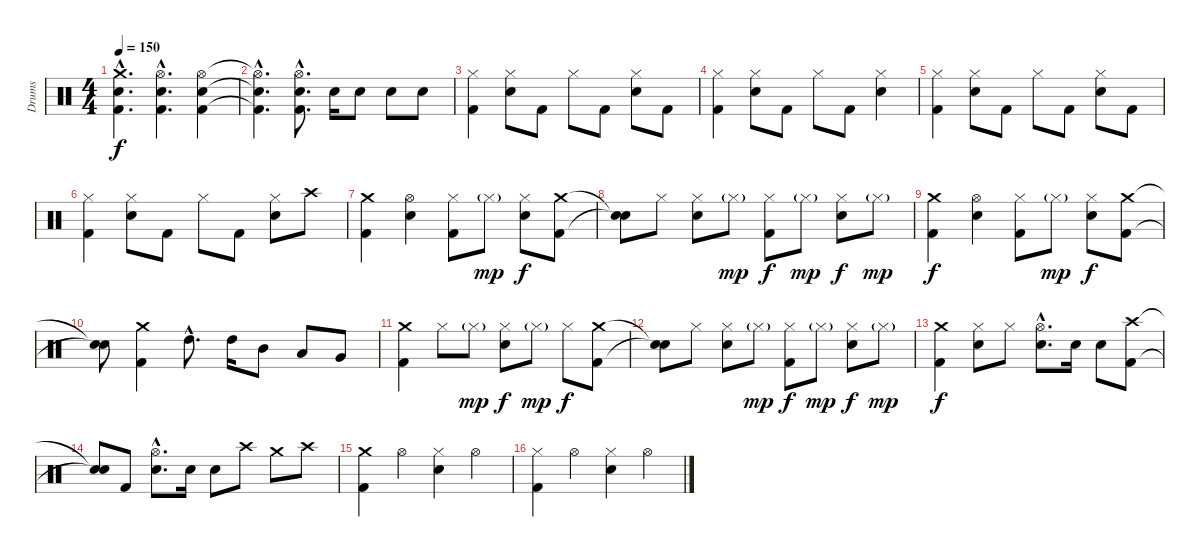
\track ("Drums" "Drums") {instrument percussion}
\staff {score}
\articulation defaults
\ts (4 4)
\tempo 150
\clef neutral
\ks c
("Crash medium (hit)"{hac} "Electric Snare (hit)"{hac} "Kick (hit) 2"{hac}).4{d dy f} ("Hi-Hat (open)"{hac} "Electric Snare (hit)"{hac} "Kick (hit) 2"{hac}).4{d} ("Hi-Hat (open)" "Electric Snare (hit)" "Kick (hit) 2").4 |
("Hi-Hat (open)"{hac t} "Electric Snare (hit)"{hac t} "Kick (hit) 2"{hac t}).4{d} ("Hi-Hat (open)"{hac} "Electric Snare (hit)"{hac} "Kick (hit) 2"{hac}).8{d} "Electric Snare (hit)".16 "Electric Snare (hit)".8 "Electric Snare (hit)".8 "Electric Snare (hit)".8 |
("Hi-Hat (closed)" "Kick (hit) 2").4 ("Hi-Hat (closed)" "Electric Snare (hit)").8 "Kick (hit) 2".8 "Hi-Hat (closed)".8 "Kick (hit) 2".8 ("Hi-Hat (closed)" "Electric Snare (hit)").8 "Kick (hit) 2".8 |
("Hi-Hat (closed)" "Kick (hit) 2").4 ("Hi-Hat (closed)" "Electric Snare (hit)").8 "Kick (hit) 2".8 "Hi-Hat (closed)".8 "Kick (hit) 2".8 ("Hi-Hat (closed)" "Electric Snare (hit)").4 |
("Hi-Hat (closed)" "Kick (hit) 2").4 ("Hi-Hat (closed)" "Electric Snare (hit)").8 "Kick (hit) 2".8 "Hi-Hat (closed)".8 "Kick (hit) 2".8 ("Hi-Hat (closed)" "Electric Snare (hit)").8 "Kick (hit) 2".8 |
("Hi-Hat (closed)" "Kick (hit) 2").4 ("Hi-Hat (closed)" "Electric Snare (hit)").8 "Kick (hit) 2".8 "Hi-Hat (closed)".8 "Kick (hit) 2".8 ("Hi-Hat (closed)" "Electric Snare (hit)").8 "Crash high (hit)".8 |
("Crash medium (hit)" "Kick (hit) 2").4 ("Hi-Hat (open)" "Electric Snare (hit)").4 ("Hi-Hat (closed)" "Kick (hit) 2").8 "Hi-Hat (closed)"{g}.8{dy mp} ("Hi-Hat (closed)" "Electric Snare (hit)").8{dy f} ("Crash medium (hit)" "Kick (hit) 2").8 |
("Snare (hit)"{t} "Snare (hit)"{t}).8 "Hi-Hat (closed)".8 ("Hi-Hat (closed)" "Electric Snare (hit)").8 "Hi-Hat (closed)"{g}.8{dy mp} ("Hi-Hat (closed)" "Kick (hit) 2").8{dy f} "Hi-Hat (closed)"{g}.8{dy mp} ("Hi-Hat (closed)" "Electric Snare (hit)").8{dy f} "Hi-Hat (closed)"{g}.8{dy mp} |
("Crash medium (hit)" "Kick (hit) 2").4{dy f} ("Hi-Hat (open)" "Electric Snare (hit)").4 ("Hi-Hat (closed)" "Kick (hit) 2").8 "Hi-Hat (closed)"{g}.8{dy mp} ("Hi-Hat (closed)" "Electric Snare (hit)").8{dy f} ("Crash medium (hit)" "Kick (hit) 2").8 |
("Snare (hit)"{t} "Snare (hit)"{t}).8 ("Crash medium (hit)" "Kick (hit) 2").4 "High Tom (hit)"{hac}.8{d} "High Tom (hit)".16 "Mid Tom (hit)".8 "Low Tom (hit)".8 "Very Low Tom (hit)".8 |
("Crash medium (hit)" "Kick (hit) 2").4 "Hi-Hat (closed)".8 "Hi-Hat (closed)"{g}.8{dy mp} ("Hi-Hat (closed)" "Electric Snare (hit)").8{dy f} "Hi-Hat (closed)"{g}.8{dy mp} "Hi-Hat (closed)".8{dy f} ("Crash medium (hit)" "Kick (hit) 2").8 |
("Snare (hit)"{t} "Snare (hit)"{t}).8 "Hi-Hat (closed)".8 ("Hi-Hat (closed)" "Electric Snare (hit)").8 "Hi-Hat (closed)"{g}.8{dy mp} ("Hi-Hat (closed)" "Kick (hit) 2").8{dy f} "Hi-Hat (closed)"{g}.8{dy mp} ("Hi-Hat (closed)" "Electric Snare (hit)").8{dy f} "Hi-Hat (closed)"{g}.8{dy mp} |
("Crash medium (hit)" "Kick (hit) 2").4{dy f} ("Hi-Hat (closed)" "Electric Snare (hit)").8 "Hi-Hat (closed)".8 ("Hi-Hat (open)"{hac} "Electric Snare (hit)"{hac}).8{d} "Electric Snare (hit)".16 "Electric Snare (hit)".8 ("Crash high (hit)" "Kick (hit) 2").8 |
("Snare (hit)"{t} "Snare (hit)"{t}).8 "Kick (hit) 2".8 ("Hi-Hat (open)"{hac} "Electric Snare (hit)"{hac}).8{d} "Electric Snare (hit)".16 "Electric Snare (hit)".8 "Crash high (hit)".8 "Crash medium (hit)".8 "Crash high (hit)".8 |
("Crash medium (hit)" "Kick (hit) 2").4 "Hi-Hat (open)".4 ("Hi-Hat (closed)" "Electric Snare (hit)").4 "Hi-Hat (open)".4 |
("Hi-Hat (closed)" "Kick (hit) 2").4 "Hi-Hat (open)".4 ("Hi-Hat (closed)" "Electric Snare (hit)").4 "Hi-Hat (open)".4
